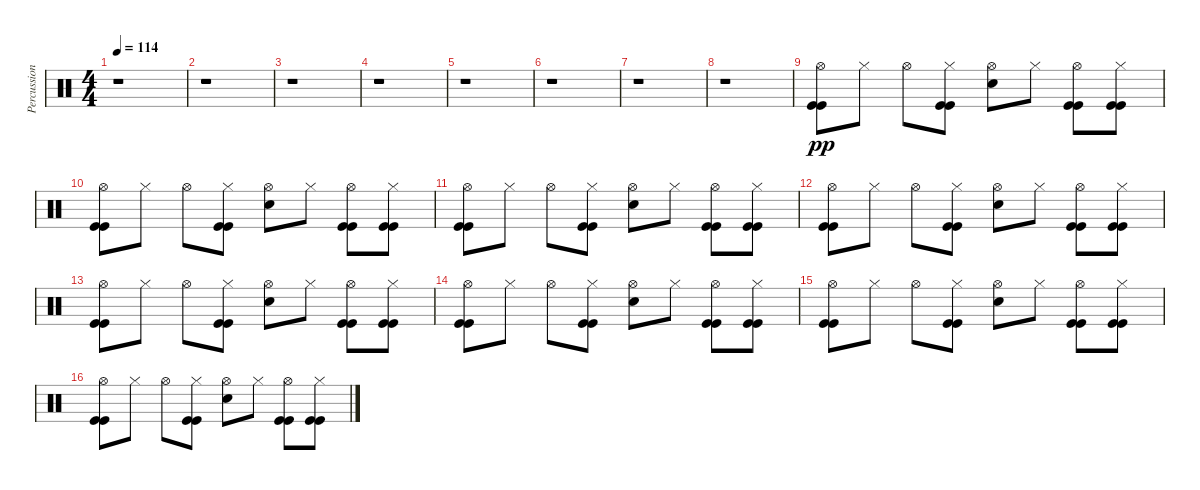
\track ("Percussion" "Percussion") {instrument percussion}
\staff {score}
\articulation defaults
\ts (4 4)
\tempo 114
\clef neutral
\ks c
r.1{dy f} |
r.1 |
r.1 |
r.1 |
r.1 |
r.1 |
r.1 |
r.1 |
("Kick (hit)" "Hi-Hat (open)" "Kick (hit)").8{dy pp} "Hi-Hat (closed)".8 "Hi-Hat (open)".8 ("Kick (hit)" "Hi-Hat (closed)" "Kick (hit)").8 ("Snare (hit) 2" "Hi-Hat (open)").8 "Hi-Hat (closed)".8 ("Kick (hit)" "Hi-Hat (open)" "Kick (hit)").8 ("Kick (hit)" "Hi-Hat (closed)" "Kick (hit)").8 |
("Kick (hit)" "Hi-Hat (open)" "Kick (hit)").8 "Hi-Hat (closed)".8 "Hi-Hat (open)".8 ("Kick (hit)" "Hi-Hat (closed)" "Kick (hit)").8 ("Snare (hit) 2" "Hi-Hat (open)").8 "Hi-Hat (closed)".8 ("Kick (hit)" "Hi-Hat (open)" "Kick (hit)").8 ("Kick (hit)" "Hi-Hat (closed)" "Kick (hit)").8 |
("Kick (hit)" "Hi-Hat (open)" "Kick (hit)").8 "Hi-Hat (closed)".8 "Hi-Hat (open)".8 ("Kick (hit)" "Hi-Hat (closed)" "Kick (hit)").8 ("Snare (hit) 2" "Hi-Hat (open)").8 "Hi-Hat (closed)".8 ("Kick (hit)" "Hi-Hat (open)" "Kick (hit)").8 ("Kick (hit)" "Hi-Hat (closed)" "Kick (hit)").8 |
("Kick (hit)" "Hi-Hat (open)" "Kick (hit)").8 "Hi-Hat (closed)".8 "Hi-Hat (open)".8 ("Kick (hit)" "Hi-Hat (closed)" "Kick (hit)").8 ("Snare (hit) 2" "Hi-Hat (open)").8 "Hi-Hat (closed)".8 ("Kick (hit)" "Hi-Hat (open)" "Kick (hit)").8 ("Kick (hit)" "Hi-Hat (closed)" "Kick (hit)").8 |
("Kick (hit)" "Hi-Hat (open)" "Kick (hit)").8 "Hi-Hat (closed)".8 "Hi-Hat (open)".8 ("Kick (hit)" "Hi-Hat (closed)" "Kick (hit)").8 ("Snare (hit) 2" "Hi-Hat (open)").8 "Hi-Hat (closed)".8 ("Kick (hit)" "Hi-Hat (open)" "Kick (hit)").8 ("Kick (hit)" "Hi-Hat (closed)" "Kick (hit)").8 |
("Kick (hit)" "Hi-Hat (open)" "Kick (hit)").8 "Hi-Hat (closed)".8 "Hi-Hat (open)".8 ("Kick (hit)" "Hi-Hat (closed)" "Kick (hit)").8 ("Snare (hit) 2" "Hi-Hat (open)").8 "Hi-Hat (closed)".8 ("Kick (hit)" "Hi-Hat (open)" "Kick (hit)").8 ("Kick (hit)" "Hi-Hat (closed)" "Kick (hit)").8 |
("Kick (hit)" "Hi-Hat (open)" "Kick (hit)").8 "Hi-Hat (closed)".8 "Hi-Hat (open)".8 ("Kick (hit)" "Hi-Hat (closed)" "Kick (hit)").8 ("Snare (hit) 2" "Hi-Hat (open)").8 "Hi-Hat (closed)".8 ("Kick (hit)" "Hi-Hat (open)" "Kick (hit)").8 ("Kick (hit)" "Hi-Hat (closed)" "Kick (hit)").8 |
("Kick (hit)" "Hi-Hat (open)" "Kick (hit)").8 "Hi-Hat (closed)".8 "Hi-Hat (open)".8 ("Kick (hit)" "Hi-Hat (closed)" "Kick (hit)").8 ("Snare (hit) 2" "Hi-Hat (open)").8 "Hi-Hat (closed)".8 ("Kick (hit)" "Hi-Hat (open)" "Kick (hit)").8 ("Kick (hit)" "Hi-Hat (closed)" "Kick (hit)").8
